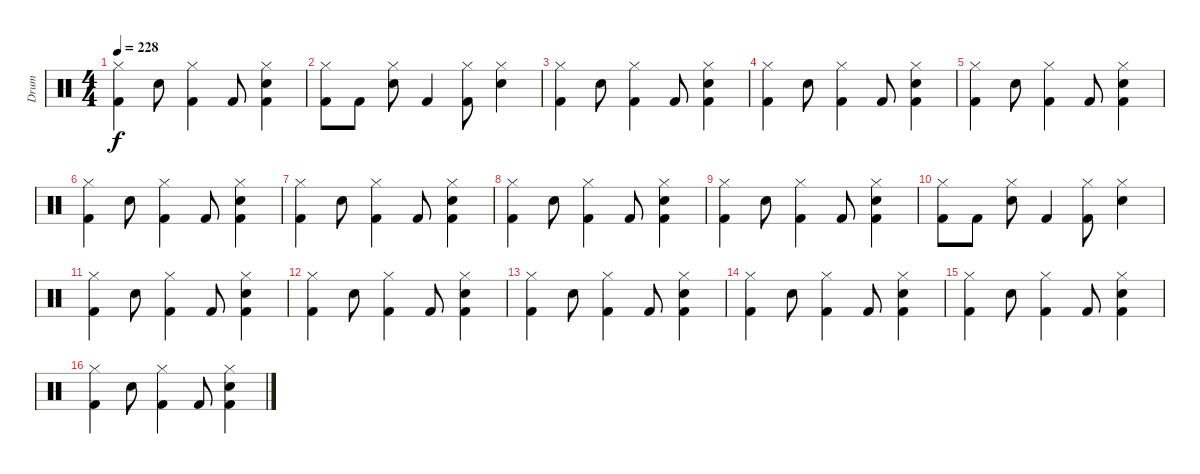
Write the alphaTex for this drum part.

\track ("Drum" "Drum") {instrument percussion}
\staff {score}
\articulation defaults
\ts (4 4)
\tempo 228
\clef neutral
\ks c
("Hi-Hat (closed)" "Kick (hit) 2").4{dy f} "Snare (hit) 2".8 ("Hi-Hat (closed)" "Kick (hit) 2").4 "Kick (hit) 2".8 ("Hi-Hat (closed)" "Snare (hit) 2" "Kick (hit) 2").4 |
("Hi-Hat (closed)" "Kick (hit) 2").8 "Kick (hit) 2".8 ("Hi-Hat (closed)" "Snare (hit) 2").8 "Kick (hit) 2".4 ("Hi-Hat (closed)" "Kick (hit) 2").8 ("Hi-Hat (closed)" "Snare (hit) 2").4 |
("Hi-Hat (closed)" "Kick (hit) 2").4 "Snare (hit) 2".8 ("Hi-Hat (closed)" "Kick (hit) 2").4 "Kick (hit) 2".8 ("Hi-Hat (closed)" "Snare (hit) 2" "Kick (hit) 2").4 |
("Hi-Hat (closed)" "Kick (hit) 2").4 "Snare (hit) 2".8 ("Hi-Hat (closed)" "Kick (hit) 2").4 "Kick (hit) 2".8 ("Hi-Hat (closed)" "Snare (hit) 2" "Kick (hit) 2").4 |
("Hi-Hat (closed)" "Kick (hit) 2").4 "Snare (hit) 2".8 ("Hi-Hat (closed)" "Kick (hit) 2").4 "Kick (hit) 2".8 ("Hi-Hat (closed)" "Snare (hit) 2" "Kick (hit) 2").4 |
("Hi-Hat (closed)" "Kick (hit) 2").4 "Snare (hit) 2".8 ("Hi-Hat (closed)" "Kick (hit) 2").4 "Kick (hit) 2".8 ("Hi-Hat (closed)" "Snare (hit) 2" "Kick (hit) 2").4 |
("Hi-Hat (closed)" "Kick (hit) 2").4 "Snare (hit) 2".8 ("Hi-Hat (closed)" "Kick (hit) 2").4 "Kick (hit) 2".8 ("Hi-Hat (closed)" "Snare (hit) 2" "Kick (hit) 2").4 |
("Hi-Hat (closed)" "Kick (hit) 2").4 "Snare (hit) 2".8 ("Hi-Hat (closed)" "Kick (hit) 2").4 "Kick (hit) 2".8 ("Hi-Hat (closed)" "Snare (hit) 2" "Kick (hit) 2").4 |
("Hi-Hat (closed)" "Kick (hit) 2").4 "Snare (hit) 2".8 ("Hi-Hat (closed)" "Kick (hit) 2").4 "Kick (hit) 2".8 ("Hi-Hat (closed)" "Snare (hit) 2" "Kick (hit) 2").4 |
("Hi-Hat (closed)" "Kick (hit) 2").8 "Kick (hit) 2".8 ("Hi-Hat (closed)" "Snare (hit) 2").8 "Kick (hit) 2".4 ("Hi-Hat (closed)" "Kick (hit) 2").8 ("Hi-Hat (closed)" "Snare (hit) 2").4 |
("Hi-Hat (closed)" "Kick (hit) 2").4 "Snare (hit) 2".8 ("Hi-Hat (closed)" "Kick (hit) 2").4 "Kick (hit) 2".8 ("Hi-Hat (closed)" "Snare (hit) 2" "Kick (hit) 2").4 |
("Hi-Hat (closed)" "Kick (hit) 2").4 "Snare (hit) 2".8 ("Hi-Hat (closed)" "Kick (hit) 2").4 "Kick (hit) 2".8 ("Hi-Hat (closed)" "Snare (hit) 2" "Kick (hit) 2").4 |
("Hi-Hat (closed)" "Kick (hit) 2").4 "Snare (hit) 2".8 ("Hi-Hat (closed)" "Kick (hit) 2").4 "Kick (hit) 2".8 ("Hi-Hat (closed)" "Snare (hit) 2" "Kick (hit) 2").4 |
("Hi-Hat (closed)" "Kick (hit) 2").4 "Snare (hit) 2".8 ("Hi-Hat (closed)" "Kick (hit) 2").4 "Kick (hit) 2".8 ("Hi-Hat (closed)" "Snare (hit) 2" "Kick (hit) 2").4 |
("Hi-Hat (closed)" "Kick (hit) 2").4 "Snare (hit) 2".8 ("Hi-Hat (closed)" "Kick (hit) 2").4 "Kick (hit) 2".8 ("Hi-Hat (closed)" "Snare (hit) 2" "Kick (hit) 2").4 |
("Hi-Hat (closed)" "Kick (hit) 2").4 "Snare (hit) 2".8 ("Hi-Hat (closed)" "Kick (hit) 2").4 "Kick (hit) 2".8 ("Hi-Hat (closed)" "Snare (hit) 2" "Kick (hit) 2").4
